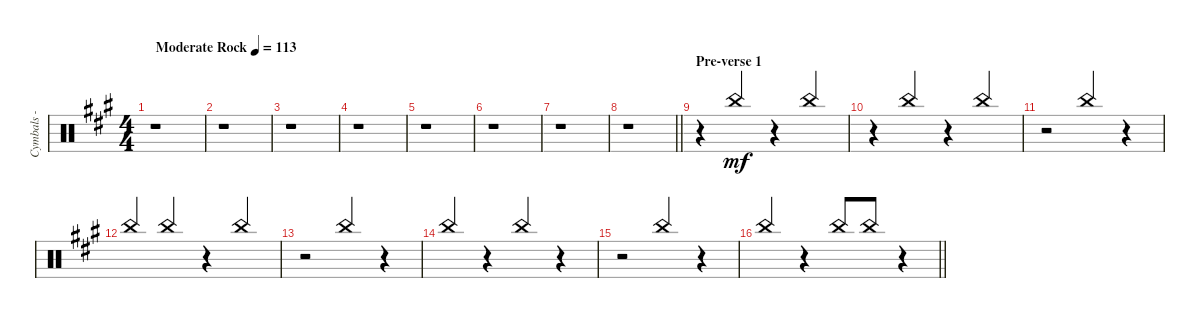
\track ("Cymbals - china" "Cymbals - ") {instrument percussion}
\staff {score}
\articulation defaults
\ts (4 4)
\tempo (113 "Moderate Rock")
\clef neutral
\ks f#minor
r.1{dy mf} |
r.1 |
r.1 |
r.1 |
r.1 |
r.1 |
r.1 |
\barLineRight lightlight
r.1 |
\section ("" "Pre-verse 1")
r.4{volume 2 balance 5} "China (hit)".4{beam Up} r.4{beam Up} "China (hit)".4{beam Up} |
r.4{beam Up} "China (hit)".4{beam Up} r.4{beam Up} "China (hit)".4{beam Up} |
r.2{beam Up} "China (hit)".4{beam Up} r.4 |
"China (hit)".4{beam Up} "China (hit)".4{beam Up} r.4{beam Up} "China (hit)".4{beam Up} |
r.2{beam Up} "China (hit)".4{beam Up} r.4{beam Up} |
"China (hit)".4{beam Up} r.4{beam Up} "China (hit)".4{beam Up} r.4{beam Up} |
r.2{beam Up} "China (hit)".4{beam Up} r.4{beam Up} |
\barLineRight lightlight "China (hit)".4{beam Up}
r.4{beam Up} "China (hit)".8{beam Up} "China (hit)".8{beam Up} r.4
